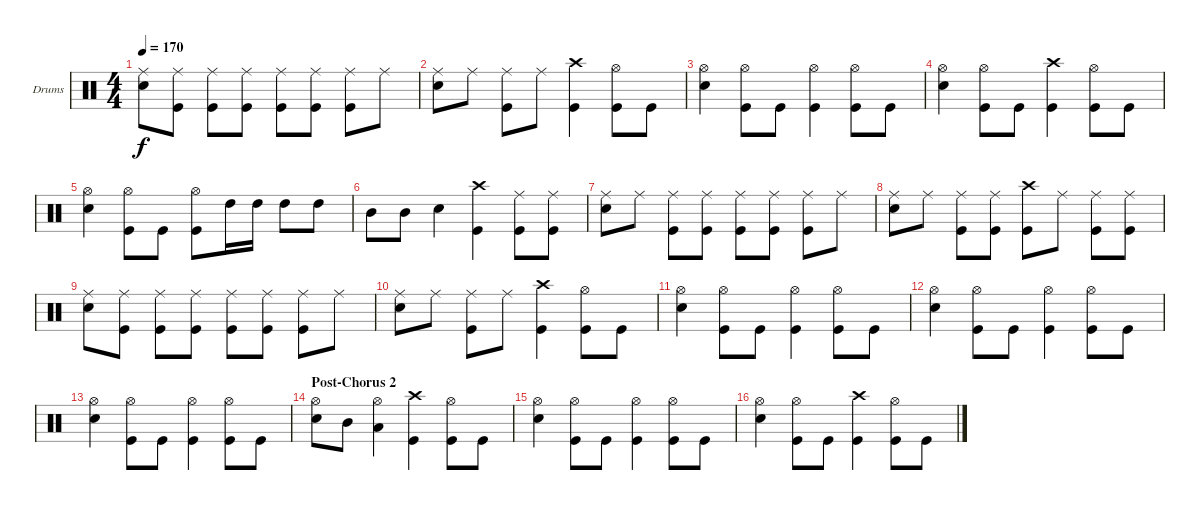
\defaultSystemsLayout 4
\bracketExtendMode groupsimilarinstruments
\firstSystemTrackNameOrientation horizontal
\otherSystemsTrackNameOrientation horizontal
\track ("Jimmy \"The Hammer\" - Drums" "Drums") {instrument percussion}
\staff {score}
\articulation defaults
\ts (4 4)
\tempo 170
\clef neutral
\ks c
("Snare (hit) 2" "Ride (middle)").8{dy f} ("Kick (hit)" "Ride (middle)").8 ("Kick (hit)" "Ride (middle)").8 ("Kick (hit)" "Ride (middle)").8 ("Kick (hit)" "Ride (middle)").8 ("Kick (hit)" "Ride (middle)").8 ("Kick (hit)" "Ride (middle)").8 "Ride (middle)".8 |
("Snare (hit) 2" "Ride (middle)").8 "Ride (middle)".8 ("Ride (middle)" "Kick (hit)").8 "Ride (middle)".8 ("Kick (hit)" "Crash high (hit)").4 ("Kick (hit)" "Hi-Hat (open)").8 "Kick (hit)".8 |
("Snare (hit) 2" "Hi-Hat (open)").4 ("Kick (hit)" "Hi-Hat (open)").8 "Kick (hit)".8 ("Kick (hit)" "Hi-Hat (open)").4 ("Kick (hit)" "Hi-Hat (open)").8 "Kick (hit)".8 |
("Snare (hit) 2" "Hi-Hat (open)").4 ("Kick (hit)" "Hi-Hat (open)").8 "Kick (hit)".8 ("Kick (hit)" "Crash high (hit)").4 ("Kick (hit)" "Hi-Hat (open)").8 "Kick (hit)".8 |
("Snare (hit) 2" "Hi-Hat (open)").4 ("Kick (hit)" "Hi-Hat (open)").8 "Kick (hit)".8 ("Kick (hit)" "Hi-Hat (open)").8 "High Tom (hit)".16 "High Tom (hit)".16 "High Tom (hit)".8 "High Tom (hit)".8 |
"Mid Tom (hit)".8 "Mid Tom (hit)".8 "Snare (hit) 2".4 ("Kick (hit)" "Crash high (hit)").4 ("Kick (hit)" "Ride (middle)").8 ("Kick (hit)" "Ride (middle)").8 |
("Snare (hit) 2" "Ride (middle)").8 "Ride (middle)".8 ("Kick (hit)" "Ride (middle)").8 ("Kick (hit)" "Ride (middle)").8 ("Kick (hit)" "Ride (middle)").8 ("Kick (hit)" "Ride (middle)").8 ("Kick (hit)" "Ride (middle)").8 "Ride (middle)".8 |
("Snare (hit) 2" "Ride (middle)").8 "Ride (middle)".8 ("Kick (hit)" "Ride (middle)").8 ("Kick (hit)" "Ride (middle)").8 ("Kick (hit)" "Crash high (hit)").8 "Ride (middle)".8 ("Kick (hit)" "Ride (middle)").8 ("Kick (hit)" "Ride (middle)").8 |
("Snare (hit) 2" "Ride (middle)").8 ("Kick (hit)" "Ride (middle)").8 ("Kick (hit)" "Ride (middle)").8 ("Kick (hit)" "Ride (middle)").8 ("Kick (hit)" "Ride (middle)").8 ("Kick (hit)" "Ride (middle)").8 ("Kick (hit)" "Ride (middle)").8 "Ride (middle)".8 |
("Snare (hit) 2" "Ride (middle)").8 "Ride (middle)".8 ("Ride (middle)" "Kick (hit)").8 "Ride (middle)".8 ("Kick (hit)" "Crash high (hit)").4 ("Kick (hit)" "Hi-Hat (open)").8 "Kick (hit)".8 |
("Snare (hit) 2" "Hi-Hat (open)").4 ("Kick (hit)" "Hi-Hat (open)").8 "Kick (hit)".8 ("Kick (hit)" "Hi-Hat (open)").4 ("Kick (hit)" "Hi-Hat (open)").8 "Kick (hit)".8 |
("Snare (hit) 2" "Hi-Hat (open)").4 ("Kick (hit)" "Hi-Hat (open)").8 "Kick (hit)".8 ("Kick (hit)" "Hi-Hat (open)").4 ("Kick (hit)" "Hi-Hat (open)").8 "Kick (hit)".8 |
("Snare (hit) 2" "Hi-Hat (open)").4 ("Kick (hit)" "Hi-Hat (open)").8 "Kick (hit)".8 ("Kick (hit)" "Hi-Hat (open)").4 ("Kick (hit)" "Hi-Hat (open)").8 "Kick (hit)".8 |
\section ("" "Post-Chorus 2")
("Snare (hit) 2" "Hi-Hat (open)").8 "Mid Tom (hit)".8 ("Low Tom (hit)" "Hi-Hat (open)").4 ("Kick (hit)" "Crash high (hit)").4 ("Kick (hit)" "Hi-Hat (open)").8 "Kick (hit)".8 |
("Snare (hit) 2" "Hi-Hat (open)").4 ("Kick (hit)" "Hi-Hat (open)").8 "Kick (hit)".8 ("Kick (hit)" "Hi-Hat (open)").4 ("Kick (hit)" "Hi-Hat (open)").8 "Kick (hit)".8 |
("Snare (hit) 2" "Hi-Hat (open)").4 ("Kick (hit)" "Hi-Hat (open)").8 "Kick (hit)".8 ("Kick (hit)" "Crash high (hit)").4 ("Kick (hit)" "Hi-Hat (open)").8 "Kick (hit)".8
